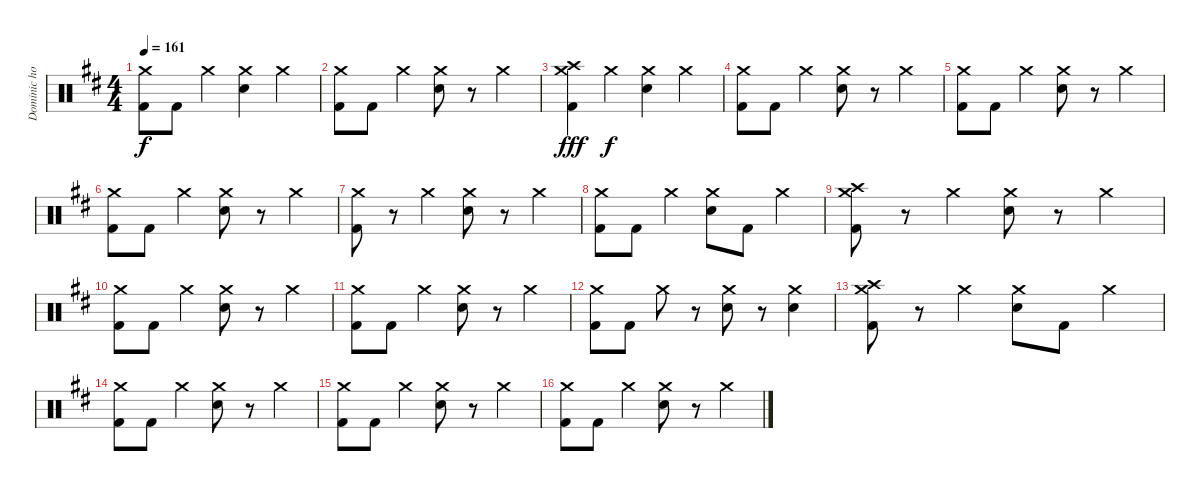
\track ("Dominic howard" "Dominic ho") {instrument percussion}
\staff {score}
\articulation defaults
\ts (4 4)
\tempo 161
\clef neutral
\ks d
("Crash medium (hit)" "Kick (hit) 2").8{dy f} "Kick (hit) 2".8 "Crash medium (hit)".4 ("Crash medium (hit)" "Electric Snare (hit)").4 "Crash medium (hit)".4 |
("Crash medium (hit)" "Kick (hit) 2").8 "Kick (hit) 2".8 "Crash medium (hit)".4 ("Crash medium (hit)" "Electric Snare (hit)").8 r.8 "Crash medium (hit)".4 |
("Crash medium (hit)" "Crash high (hit)" "Kick (hit) 2").4{dy fff} "Crash medium (hit)".4{dy f} ("Crash medium (hit)" "Electric Snare (hit)").4 "Crash medium (hit)".4 |
("Crash medium (hit)" "Kick (hit) 2").8 "Kick (hit) 2".8 "Crash medium (hit)".4 ("Crash medium (hit)" "Electric Snare (hit)").8 r.8 "Crash medium (hit)".4 |
("Crash medium (hit)" "Kick (hit) 2").8 "Kick (hit) 2".8 "Crash medium (hit)".4 ("Crash medium (hit)" "Electric Snare (hit)").8 r.8 "Crash medium (hit)".4 |
("Crash medium (hit)" "Kick (hit) 2").8 "Kick (hit) 2".8 "Crash medium (hit)".4 ("Crash medium (hit)" "Electric Snare (hit)").8 r.8 "Crash medium (hit)".4 |
("Crash medium (hit)" "Kick (hit) 2").8 r.8 "Crash medium (hit)".4 ("Crash medium (hit)" "Electric Snare (hit)").8 r.8 "Crash medium (hit)".4 |
("Crash medium (hit)" "Kick (hit) 2").8 "Kick (hit) 2".8 "Crash medium (hit)".4 ("Crash medium (hit)" "Electric Snare (hit)").8 "Kick (hit) 2".8 "Crash medium (hit)".4 |
("Crash medium (hit)" "Crash high (hit)" "Kick (hit) 2").8 r.8 "Crash medium (hit)".4 ("Crash medium (hit)" "Electric Snare (hit)").8 r.8 "Crash medium (hit)".4 |
("Crash medium (hit)" "Kick (hit) 2").8 "Kick (hit) 2".8 "Crash medium (hit)".4 ("Crash medium (hit)" "Electric Snare (hit)").8 r.8 "Crash medium (hit)".4 |
("Crash medium (hit)" "Kick (hit) 2").8 "Kick (hit) 2".8 "Crash medium (hit)".4 ("Crash medium (hit)" "Electric Snare (hit)").8 r.8 "Crash medium (hit)".4 |
("Crash medium (hit)" "Kick (hit) 2").8 "Kick (hit) 2".8 "Crash medium (hit)".8 r.8 ("Crash medium (hit)" "Electric Snare (hit)").8 r.8 ("Crash medium (hit)" "Electric Snare (hit)").4 |
("Crash medium (hit)" "Crash high (hit)" "Kick (hit) 2").8 r.8 "Crash medium (hit)".4 ("Crash medium (hit)" "Electric Snare (hit)").8 "Kick (hit) 2".8 "Crash medium (hit)".4 |
("Crash medium (hit)" "Kick (hit) 2").8 "Kick (hit) 2".8 "Crash medium (hit)".4 ("Crash medium (hit)" "Electric Snare (hit)").8 r.8 "Crash medium (hit)".4 |
("Crash medium (hit)" "Kick (hit) 2").8 "Kick (hit) 2".8 "Crash medium (hit)".4 ("Crash medium (hit)" "Electric Snare (hit)").8 r.8 "Crash medium (hit)".4 |
("Crash medium (hit)" "Kick (hit) 2").8 "Kick (hit) 2".8 "Crash medium (hit)".4 ("Crash medium (hit)" "Electric Snare (hit)").8 r.8 "Crash medium (hit)".4
